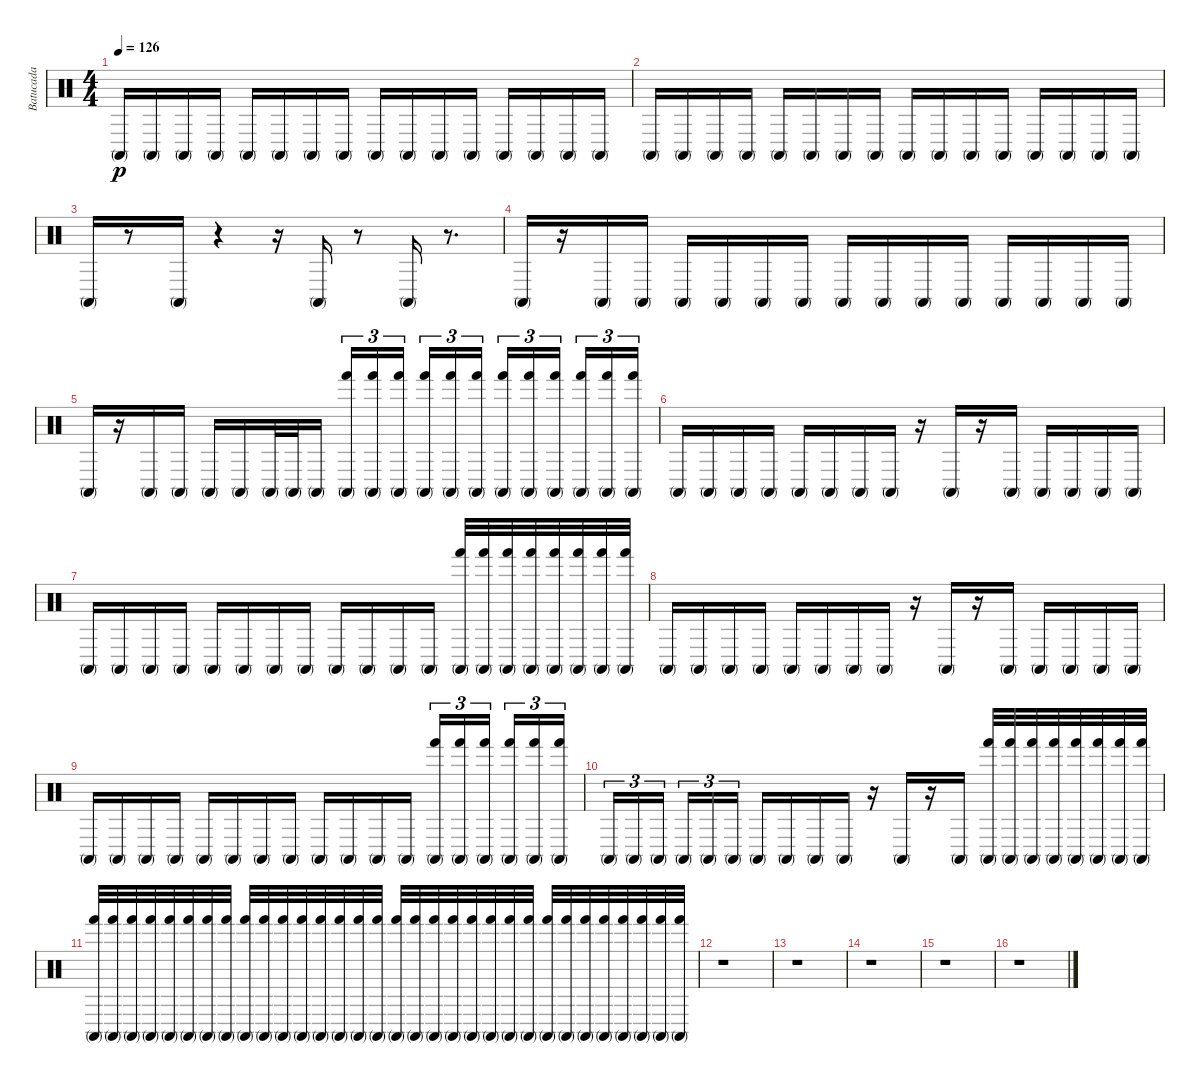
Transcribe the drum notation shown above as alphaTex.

\track ("Batucada" "Batucada") {instrument percussion}
\staff {score}
\articulation defaults
\ts (4 4)
\tempo 126
\clef neutral
\ks c "Conga high (mute)".16{dy p} "Conga high (mute)".16 "Conga high (mute)".16 "Conga high (mute)".16 "Conga high (mute)".16 "Conga high (mute)".16 "Conga high (mute)".16 "Conga high (mute)".16 "Conga high (mute)".16 "Conga high (mute)".16 "Conga high (mute)".16 "Conga high (mute)".16 "Conga high (mute)".16 "Conga high (mute)".16 "Conga high (mute)".16 "Conga high (mute)".16
|
"Conga high (mute)".16 "Conga high (mute)".16 "Conga high (mute)".16 "Conga high (mute)".16 "Conga high (mute)".16 "Conga high (mute)".16 "Conga high (mute)".16 "Conga high (mute)".16 "Conga high (mute)".16 "Conga high (mute)".16 "Conga high (mute)".16 "Conga high (mute)".16 "Conga high (mute)".16 "Conga high (mute)".16 "Conga high (mute)".16 "Conga high (mute)".16 |
"Conga high (mute)".16 r.8 "Conga high (mute)".16 r.4 r.16 "Conga high (mute)".16 r.8 "Conga high (mute)".16 r.8{d} |
"Conga high (mute)".16 r.16 "Conga high (mute)".16 "Conga high (mute)".16 "Conga high (mute)".16 "Conga high (mute)".16 "Conga high (mute)".16 "Conga high (mute)".16 "Conga high (mute)".16 "Conga high (mute)".16 "Conga high (mute)".16 "Conga high (mute)".16 "Conga high (mute)".16 "Conga high (mute)".16 "Conga high (mute)".16 "Conga high (mute)".16 |
"Conga high (mute)".16 r.16 "Conga high (mute)".16 "Conga high (mute)".16 "Conga high (mute)".16 "Conga high (mute)".16 "Conga high (mute)".32 "Conga high (mute)".32 "Conga high (mute)".16 ("Conga high (mute)" "Hand (hit)").16{tu (3 2)} ("Conga high (mute)" "Hand (hit)").16{tu (3 2)} ("Conga high (mute)" "Hand (hit)").16{tu (3 2)} ("Conga high (mute)" "Hand (hit)").16{tu (3 2)} ("Conga high (mute)" "Hand (hit)").16{tu (3 2)} ("Conga high (mute)" "Hand (hit)").16{tu (3 2)} ("Conga high (mute)" "Hand (hit)").16{tu (3 2)} ("Conga high (mute)" "Hand (hit)").16{tu (3 2)} ("Conga high (mute)" "Hand (hit)").16{tu (3 2)} ("Conga high (mute)" "Hand (hit)").16{tu (3 2)} ("Conga high (mute)" "Hand (hit)").16{tu (3 2)} ("Conga high (mute)" "Hand (hit)").16{tu (3 2)} |
"Conga high (mute)".16 "Conga high (mute)".16 "Conga high (mute)".16 "Conga high (mute)".16 "Conga high (mute)".16 "Conga high (mute)".16 "Conga high (mute)".16 "Conga high (mute)".16 r.16 "Conga high (mute)".16 r.16 "Conga high (mute)".16 "Conga high (mute)".16 "Conga high (mute)".16 "Conga high (mute)".16 "Conga high (mute)".16 |
"Conga high (mute)".16 "Conga high (mute)".16 "Conga high (mute)".16 "Conga high (mute)".16 "Conga high (mute)".16 "Conga high (mute)".16 "Conga high (mute)".16 "Conga high (mute)".16 "Conga high (mute)".16 "Conga high (mute)".16 "Conga high (mute)".16 "Conga high (mute)".16 ("Hand (hit)" "Conga high (mute)").32 ("Hand (hit)" "Conga high (mute)").32 ("Hand (hit)" "Conga high (mute)").32 ("Hand (hit)" "Conga high (mute)").32 ("Hand (hit)" "Conga high (mute)").32 ("Hand (hit)" "Conga high (mute)").32 ("Hand (hit)" "Conga high (mute)").32 ("Hand (hit)" "Conga high (mute)").32 |
"Conga high (mute)".16 "Conga high (mute)".16 "Conga high (mute)".16 "Conga high (mute)".16 "Conga high (mute)".16 "Conga high (mute)".16 "Conga high (mute)".16 "Conga high (mute)".16 r.16 "Conga high (mute)".16 r.16 "Conga high (mute)".16 "Conga high (mute)".16 "Conga high (mute)".16 "Conga high (mute)".16 "Conga high (mute)".16 |
"Conga high (mute)".16 "Conga high (mute)".16 "Conga high (mute)".16 "Conga high (mute)".16 "Conga high (mute)".16 "Conga high (mute)".16 "Conga high (mute)".16 "Conga high (mute)".16 "Conga high (mute)".16 "Conga high (mute)".16 "Conga high (mute)".16 "Conga high (mute)".16 ("Hand (hit)" "Conga high (mute)").16{tu (3 2)} ("Hand (hit)" "Conga high (mute)").16{tu (3 2)} ("Hand (hit)" "Conga high (mute)").16{tu (3 2)} ("Hand (hit)" "Conga high (mute)").16{tu (3 2)} ("Hand (hit)" "Conga high (mute)").16{tu (3 2)} ("Hand (hit)" "Conga high (mute)").16{tu (3 2)} |
"Conga high (mute)".16{tu (3 2)} "Conga high (mute)".16{tu (3 2)} "Conga high (mute)".16{tu (3 2)} "Conga high (mute)".16{tu (3 2)} "Conga high (mute)".16{tu (3 2)} "Conga high (mute)".16{tu (3 2)} "Conga high (mute)".16 "Conga high (mute)".16 "Conga high (mute)".16 "Conga high (mute)".16 r.16 "Conga high (mute)".16 r.16 "Conga high (mute)".16 ("Hand (hit)" "Conga high (mute)").32 ("Hand (hit)" "Conga high (mute)").32 ("Hand (hit)" "Conga high (mute)").32 ("Hand (hit)" "Conga high (mute)").32 ("Hand (hit)" "Conga high (mute)").32 ("Hand (hit)" "Conga high (mute)").32 ("Hand (hit)" "Conga high (mute)").32 ("Hand (hit)" "Conga high (mute)").32 |
("Hand (hit)" "Conga high (mute)").32 ("Hand (hit)" "Conga high (mute)").32 ("Hand (hit)" "Conga high (mute)").32 ("Hand (hit)" "Conga high (mute)").32 ("Hand (hit)" "Conga high (mute)").32 ("Hand (hit)" "Conga high (mute)").32 ("Hand (hit)" "Conga high (mute)").32 ("Hand (hit)" "Conga high (mute)").32 ("Hand (hit)" "Conga high (mute)").32 ("Hand (hit)" "Conga high (mute)").32 ("Hand (hit)" "Conga high (mute)").32 ("Hand (hit)" "Conga high (mute)").32 ("Hand (hit)" "Conga high (mute)").32 ("Hand (hit)" "Conga high (mute)").32 ("Hand (hit)" "Conga high (mute)").32 ("Hand (hit)" "Conga high (mute)").32 ("Hand (hit)" "Conga high (mute)").32 ("Hand (hit)" "Conga high (mute)").32 ("Hand (hit)" "Conga high (mute)").32 ("Hand (hit)" "Conga high (mute)").32 ("Hand (hit)" "Conga high (mute)").32 ("Hand (hit)" "Conga high (mute)").32 ("Hand (hit)" "Conga high (mute)").32 ("Hand (hit)" "Conga high (mute)").32 ("Hand (hit)" "Conga high (mute)").32 ("Hand (hit)" "Conga high (mute)").32 ("Hand (hit)" "Conga high (mute)").32 ("Hand (hit)" "Conga high (mute)").32 ("Hand (hit)" "Conga high (mute)").32 ("Hand (hit)" "Conga high (mute)").32 ("Hand (hit)" "Conga high (mute)").32 ("Hand (hit)" "Conga high (mute)").32 |
r.1 |
r.1 |
r.1 |
r.1 |
r.1
